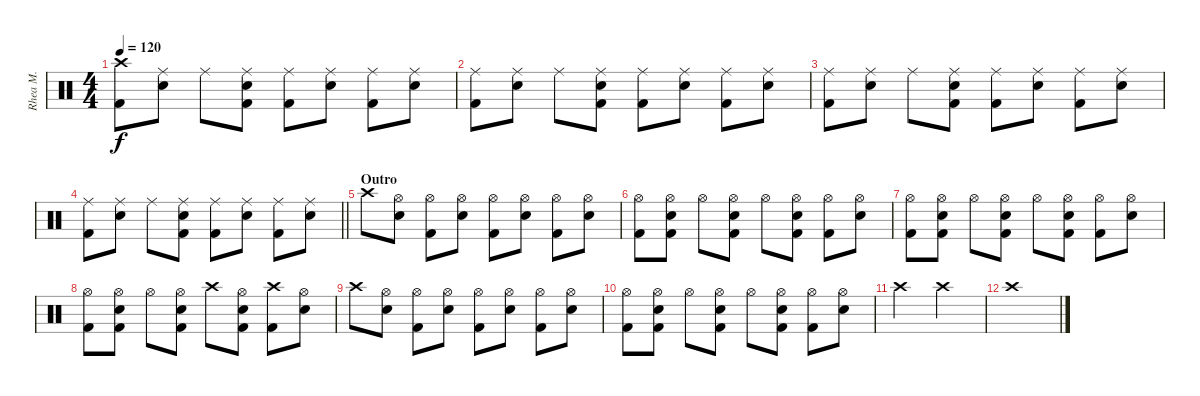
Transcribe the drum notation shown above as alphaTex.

\track ("Rhea M." "Rhea M.") {instrument percussion}
\staff {score}
\articulation defaults
\ts (4 4)
\tempo 120
\clef neutral
\ks c
("Crash high (hit)" "Kick (hit) 2").8{dy f} ("Ride (middle)" "Electric Snare (hit)").8 "Ride (middle)".8 ("Ride (middle)" "Electric Snare (hit)" "Kick (hit) 2").8 ("Ride (middle)" "Kick (hit) 2").8 ("Ride (middle)" "Electric Snare (hit)").8 ("Ride (middle)" "Kick (hit) 2").8 ("Ride (middle)" "Electric Snare (hit)").8 |
("Ride (middle)" "Kick (hit) 2").8 ("Ride (middle)" "Electric Snare (hit)").8 "Ride (middle)".8 ("Ride (middle)" "Electric Snare (hit)" "Kick (hit) 2").8 ("Ride (middle)" "Kick (hit) 2").8 ("Ride (middle)" "Electric Snare (hit)").8 ("Ride (middle)" "Kick (hit) 2").8 ("Ride (middle)" "Electric Snare (hit)").8 |
("Ride (middle)" "Kick (hit) 2").8 ("Ride (middle)" "Electric Snare (hit)").8 "Ride (middle)".8 ("Ride (middle)" "Electric Snare (hit)" "Kick (hit) 2").8 ("Ride (middle)" "Kick (hit) 2").8 ("Ride (middle)" "Electric Snare (hit)").8 ("Ride (middle)" "Kick (hit) 2").8 ("Ride (middle)" "Electric Snare (hit)").8 |
\barLineRight lightlight
("Ride (middle)" "Kick (hit) 2").8 ("Ride (middle)" "Electric Snare (hit)").8 "Ride (middle)".8 ("Ride (middle)" "Electric Snare (hit)" "Kick (hit) 2").8 ("Ride (middle)" "Kick (hit) 2").8 ("Ride (middle)" "Electric Snare (hit)").8 ("Ride (middle)" "Kick (hit) 2").8 ("Ride (middle)" "Electric Snare (hit)").8 |
\section ("" "Outro")
"Crash high (hit)".8 ("Hi-Hat (open)" "Electric Snare (hit)").8 ("Hi-Hat (open)" "Kick (hit) 2").8 ("Hi-Hat (open)" "Electric Snare (hit)").8 ("Hi-Hat (open)" "Kick (hit) 2").8 ("Hi-Hat (open)" "Electric Snare (hit)").8 ("Hi-Hat (open)" "Kick (hit) 2").8 ("Hi-Hat (open)" "Electric Snare (hit)").8 |
("Hi-Hat (open)" "Kick (hit) 2").8 ("Hi-Hat (open)" "Electric Snare (hit)" "Kick (hit) 2").8 "Hi-Hat (open)".8 ("Hi-Hat (open)" "Electric Snare (hit)" "Kick (hit) 2").8 "Hi-Hat (open)".8 ("Hi-Hat (open)" "Electric Snare (hit)" "Kick (hit) 2").8 ("Hi-Hat (open)" "Kick (hit) 2").8 ("Hi-Hat (open)" "Electric Snare (hit)").8 |
("Hi-Hat (open)" "Kick (hit) 2").8 ("Hi-Hat (open)" "Electric Snare (hit)" "Kick (hit) 2").8 "Hi-Hat (open)".8 ("Hi-Hat (open)" "Electric Snare (hit)" "Kick (hit) 2").8 "Hi-Hat (open)".8 ("Hi-Hat (open)" "Electric Snare (hit)" "Kick (hit) 2").8 ("Hi-Hat (open)" "Kick (hit) 2").8 ("Hi-Hat (open)" "Electric Snare (hit)").8 |
("Hi-Hat (open)" "Kick (hit) 2").8 ("Hi-Hat (open)" "Electric Snare (hit)" "Kick (hit) 2").8 "Hi-Hat (open)".8 ("Hi-Hat (open)" "Electric Snare (hit)" "Kick (hit) 2").8 "Crash high (hit)".8 ("Hi-Hat (open)" "Electric Snare (hit)" "Kick (hit) 2").8 ("Crash high (hit)" "Kick (hit) 2").8 ("Hi-Hat (open)" "Electric Snare (hit)").8 |
"Crash high (hit)".8 ("Hi-Hat (open)" "Electric Snare (hit)").8 ("Hi-Hat (open)" "Kick (hit) 2").8 ("Hi-Hat (open)" "Electric Snare (hit)").8 ("Hi-Hat (open)" "Kick (hit) 2").8 ("Hi-Hat (open)" "Electric Snare (hit)").8 ("Hi-Hat (open)" "Kick (hit) 2").8 ("Hi-Hat (open)" "Electric Snare (hit)").8 |
("Hi-Hat (open)" "Kick (hit) 2").8 ("Hi-Hat (open)" "Electric Snare (hit)" "Kick (hit) 2").8 "Hi-Hat (open)".8 ("Hi-Hat (open)" "Electric Snare (hit)" "Kick (hit) 2").8 "Hi-Hat (open)".8 ("Hi-Hat (open)" "Electric Snare (hit)" "Kick (hit) 2").8 ("Hi-Hat (open)" "Kick (hit) 2").8 ("Hi-Hat (open)" "Electric Snare (hit)").8 |
"Crash high (hit)".2 "Crash high (hit)".2 |
"Crash high (hit)".1
